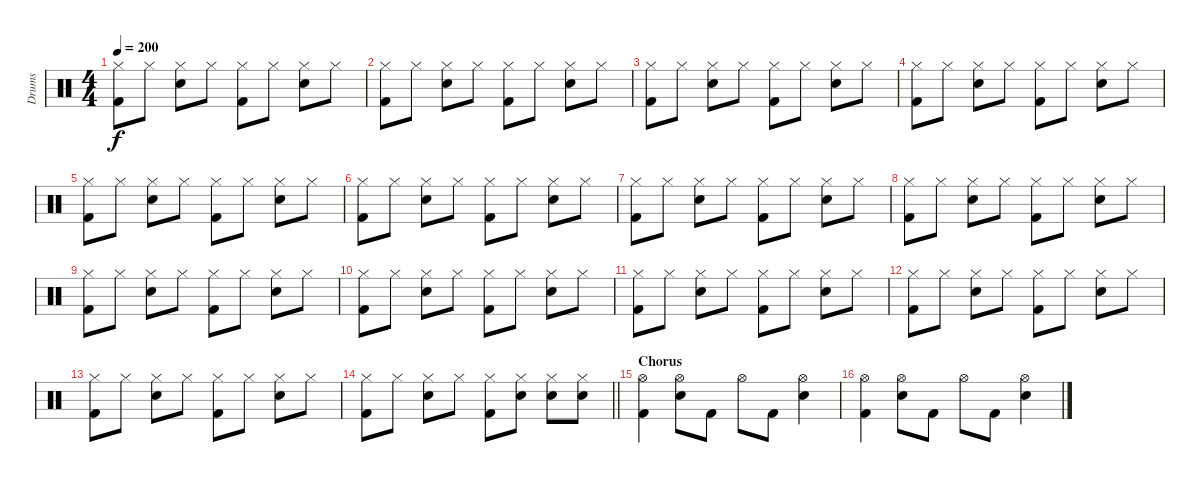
\track ("Drums" "Drums") {instrument percussion}
\staff {score}
\articulation defaults
\ts (4 4)
\tempo 200
\clef neutral
\ks c
("Hi-Hat (closed)" "Kick (hit) 2").8{dy f} "Hi-Hat (closed)".8 ("Snare (hit) 2" "Hi-Hat (closed)").8 "Hi-Hat (closed)".8 ("Hi-Hat (closed)" "Kick (hit) 2").8 "Hi-Hat (closed)".8 ("Snare (hit) 2" "Hi-Hat (closed)").8 "Hi-Hat (closed)".8 |
("Hi-Hat (closed)" "Kick (hit) 2").8 "Hi-Hat (closed)".8 ("Snare (hit) 2" "Hi-Hat (closed)").8 "Hi-Hat (closed)".8 ("Hi-Hat (closed)" "Kick (hit) 2").8 "Hi-Hat (closed)".8 ("Snare (hit) 2" "Hi-Hat (closed)").8 "Hi-Hat (closed)".8 |
("Hi-Hat (closed)" "Kick (hit) 2").8 "Hi-Hat (closed)".8 ("Snare (hit) 2" "Hi-Hat (closed)").8 "Hi-Hat (closed)".8 ("Hi-Hat (closed)" "Kick (hit) 2").8 "Hi-Hat (closed)".8 ("Snare (hit) 2" "Hi-Hat (closed)").8 "Hi-Hat (closed)".8 |
("Hi-Hat (closed)" "Kick (hit) 2").8 "Hi-Hat (closed)".8 ("Snare (hit) 2" "Hi-Hat (closed)").8 "Hi-Hat (closed)".8 ("Hi-Hat (closed)" "Kick (hit) 2").8 "Hi-Hat (closed)".8 ("Snare (hit) 2" "Hi-Hat (closed)").8 "Hi-Hat (closed)".8 |
("Hi-Hat (closed)" "Kick (hit) 2").8 "Hi-Hat (closed)".8 ("Snare (hit) 2" "Hi-Hat (closed)").8 "Hi-Hat (closed)".8 ("Hi-Hat (closed)" "Kick (hit) 2").8 "Hi-Hat (closed)".8 ("Snare (hit) 2" "Hi-Hat (closed)").8 "Hi-Hat (closed)".8 |
("Hi-Hat (closed)" "Kick (hit) 2").8 "Hi-Hat (closed)".8 ("Snare (hit) 2" "Hi-Hat (closed)").8 "Hi-Hat (closed)".8 ("Hi-Hat (closed)" "Kick (hit) 2").8 "Hi-Hat (closed)".8 ("Snare (hit) 2" "Hi-Hat (closed)").8 "Hi-Hat (closed)".8 |
("Hi-Hat (closed)" "Kick (hit) 2").8 "Hi-Hat (closed)".8 ("Snare (hit) 2" "Hi-Hat (closed)").8 "Hi-Hat (closed)".8 ("Hi-Hat (closed)" "Kick (hit) 2").8 "Hi-Hat (closed)".8 ("Snare (hit) 2" "Hi-Hat (closed)").8 "Hi-Hat (closed)".8 |
("Hi-Hat (closed)" "Kick (hit) 2").8 "Hi-Hat (closed)".8 ("Snare (hit) 2" "Hi-Hat (closed)").8 "Hi-Hat (closed)".8 ("Hi-Hat (closed)" "Kick (hit) 2").8 "Hi-Hat (closed)".8 ("Snare (hit) 2" "Hi-Hat (closed)").8 "Hi-Hat (closed)".8 |
("Hi-Hat (closed)" "Kick (hit) 2").8 "Hi-Hat (closed)".8 ("Snare (hit) 2" "Hi-Hat (closed)").8 "Hi-Hat (closed)".8 ("Hi-Hat (closed)" "Kick (hit) 2").8 "Hi-Hat (closed)".8 ("Snare (hit) 2" "Hi-Hat (closed)").8 "Hi-Hat (closed)".8 |
("Hi-Hat (closed)" "Kick (hit) 2").8 "Hi-Hat (closed)".8 ("Snare (hit) 2" "Hi-Hat (closed)").8 "Hi-Hat (closed)".8 ("Hi-Hat (closed)" "Kick (hit) 2").8 "Hi-Hat (closed)".8 ("Snare (hit) 2" "Hi-Hat (closed)").8 "Hi-Hat (closed)".8 |
("Hi-Hat (closed)" "Kick (hit) 2").8 "Hi-Hat (closed)".8 ("Snare (hit) 2" "Hi-Hat (closed)").8 "Hi-Hat (closed)".8 ("Hi-Hat (closed)" "Kick (hit) 2").8 "Hi-Hat (closed)".8 ("Snare (hit) 2" "Hi-Hat (closed)").8 "Hi-Hat (closed)".8 |
("Hi-Hat (closed)" "Kick (hit) 2").8 "Hi-Hat (closed)".8 ("Snare (hit) 2" "Hi-Hat (closed)").8 "Hi-Hat (closed)".8 ("Hi-Hat (closed)" "Kick (hit) 2").8 "Hi-Hat (closed)".8 ("Snare (hit) 2" "Hi-Hat (closed)").8 "Hi-Hat (closed)".8 |
("Hi-Hat (closed)" "Kick (hit) 2").8 "Hi-Hat (closed)".8 ("Snare (hit) 2" "Hi-Hat (closed)").8 "Hi-Hat (closed)".8 ("Hi-Hat (closed)" "Kick (hit) 2").8 "Hi-Hat (closed)".8 ("Snare (hit) 2" "Hi-Hat (closed)").8 "Hi-Hat (closed)".8 |
\barLineRight lightlight
("Hi-Hat (closed)" "Kick (hit) 2").8 "Hi-Hat (closed)".8 ("Snare (hit) 2" "Hi-Hat (closed)").8 "Hi-Hat (closed)".8 ("Hi-Hat (closed)" "Kick (hit) 2").8 ("Snare (hit) 2" "Hi-Hat (closed)").8 ("Snare (hit) 2" "Hi-Hat (closed)").8 ("Snare (hit) 2" "Hi-Hat (closed)").8 |
\section ("" "Chorus")
("Hi-Hat (open)" "Kick (hit) 2").4 ("Snare (hit) 2" "Hi-Hat (open)").8 "Kick (hit) 2".8 "Hi-Hat (open)".8 "Kick (hit) 2".8 ("Snare (hit) 2" "Hi-Hat (open)").4 |
("Hi-Hat (open)" "Kick (hit) 2").4 ("Snare (hit) 2" "Hi-Hat (open)").8 "Kick (hit) 2".8 "Hi-Hat (open)".8 "Kick (hit) 2".8 ("Snare (hit) 2" "Hi-Hat (open)").4
